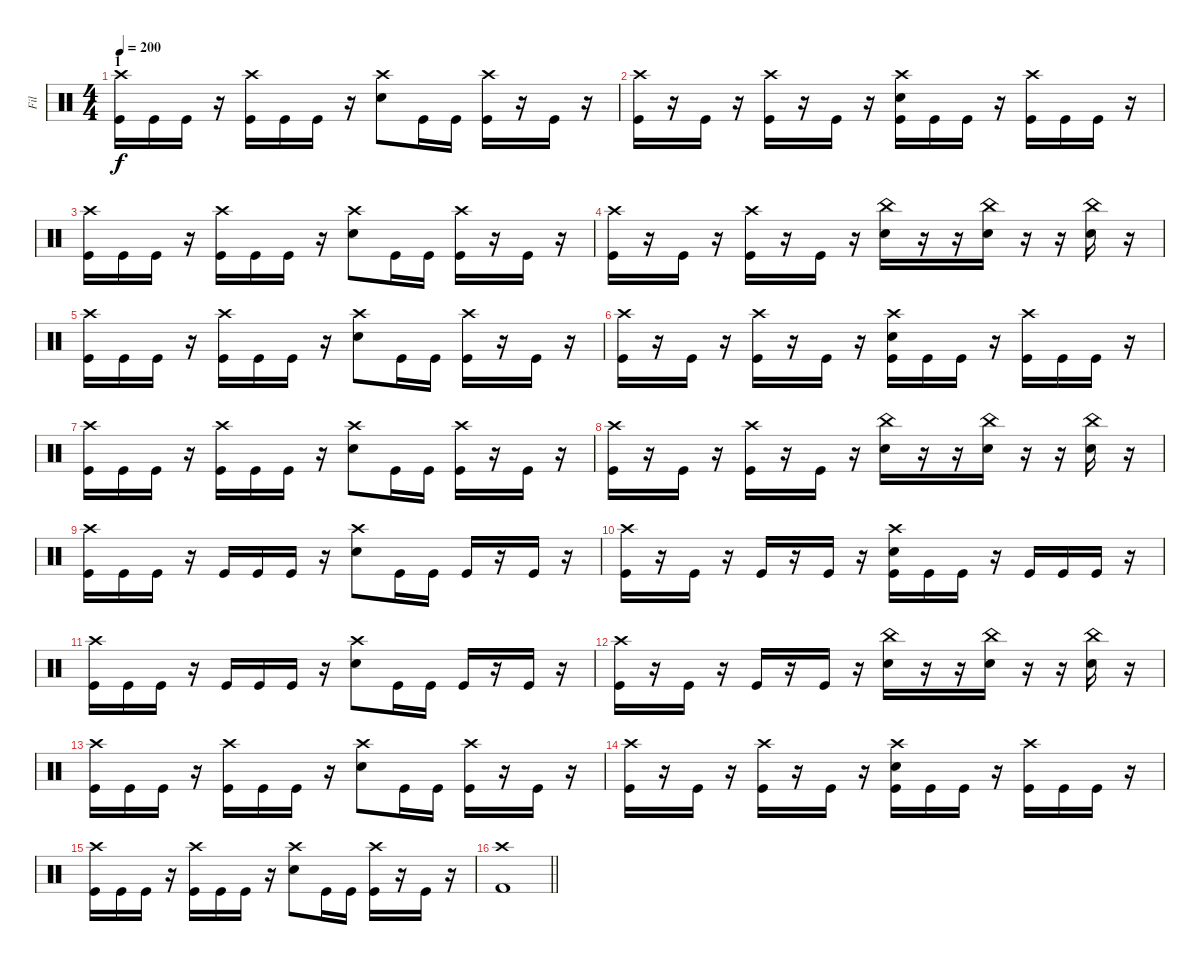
\track ("Fil" "Fil") {instrument percussion}
\staff {score}
\articulation defaults
\ts (4 4)
\section ("" "1")
\tempo 200
\clef neutral
\ks c
("Crash high (hit)" "Kick (hit)").16{dy f} "Kick (hit)".16 "Kick (hit)".16 r.16 ("Crash high (hit)" "Kick (hit)").16 "Kick (hit)".16 "Kick (hit)".16 r.16 ("Crash high (hit)" "Electric Snare (hit)").8 "Kick (hit)".16 "Kick (hit)".16 ("Crash high (hit)" "Kick (hit)").16 r.16 "Kick (hit)".16 r.16 |
("Crash high (hit)" "Kick (hit)").16 r.16 "Kick (hit)".16 r.16 ("Crash high (hit)" "Kick (hit)").16 r.16 "Kick (hit)".16 r.16 ("Crash high (hit)" "Electric Snare (hit)" "Kick (hit)").16 "Kick (hit)".16 "Kick (hit)".16 r.16 ("Crash high (hit)" "Kick (hit)").16 "Kick (hit)".16 "Kick (hit)".16 r.16 |
("Crash high (hit)" "Kick (hit)").16 "Kick (hit)".16 "Kick (hit)".16 r.16 ("Crash high (hit)" "Kick (hit)").16 "Kick (hit)".16 "Kick (hit)".16 r.16 ("Crash high (hit)" "Electric Snare (hit)").8 "Kick (hit)".16 "Kick (hit)".16 ("Crash high (hit)" "Kick (hit)").16 r.16 "Kick (hit)".16 r.16 |
("Crash high (hit)" "Kick (hit)").16 r.16 "Kick (hit)".16 r.16 ("Crash high (hit)" "Kick (hit)").16 r.16 "Kick (hit)".16 r.16 ("China (hit)" "Electric Snare (hit)").16 r.16 r.16 ("China (hit)" "Electric Snare (hit)").16 r.16 r.16 ("China (hit)" "Electric Snare (hit)").16 r.16 |
("Crash high (hit)" "Kick (hit)").16 "Kick (hit)".16 "Kick (hit)".16 r.16 ("Crash high (hit)" "Kick (hit)").16 "Kick (hit)".16 "Kick (hit)".16 r.16 ("Crash high (hit)" "Electric Snare (hit)").8 "Kick (hit)".16 "Kick (hit)".16 ("Crash high (hit)" "Kick (hit)").16 r.16 "Kick (hit)".16 r.16 |
("Crash high (hit)" "Kick (hit)").16 r.16 "Kick (hit)".16 r.16 ("Crash high (hit)" "Kick (hit)").16 r.16 "Kick (hit)".16 r.16 ("Crash high (hit)" "Electric Snare (hit)" "Kick (hit)").16 "Kick (hit)".16 "Kick (hit)".16 r.16 ("Crash high (hit)" "Kick (hit)").16 "Kick (hit)".16 "Kick (hit)".16 r.16 |
("Crash high (hit)" "Kick (hit)").16 "Kick (hit)".16 "Kick (hit)".16 r.16 ("Crash high (hit)" "Kick (hit)").16 "Kick (hit)".16 "Kick (hit)".16 r.16 ("Crash high (hit)" "Electric Snare (hit)").8 "Kick (hit)".16 "Kick (hit)".16 ("Crash high (hit)" "Kick (hit)").16 r.16 "Kick (hit)".16 r.16 |
("Crash high (hit)" "Kick (hit)").16 r.16 "Kick (hit)".16 r.16 ("Crash high (hit)" "Kick (hit)").16 r.16 "Kick (hit)".16 r.16 ("China (hit)" "Electric Snare (hit)").16 r.16 r.16 ("China (hit)" "Electric Snare (hit)").16 r.16 r.16 ("China (hit)" "Electric Snare (hit)").16 r.16 |
("Crash high (hit)" "Kick (hit)").16 "Kick (hit)".16 "Kick (hit)".16 r.16 "Kick (hit)".16 "Kick (hit)".16 "Kick (hit)".16 r.16 ("Crash high (hit)" "Electric Snare (hit)").8 "Kick (hit)".16 "Kick (hit)".16 "Kick (hit)".16 r.16 "Kick (hit)".16 r.16 |
("Crash high (hit)" "Kick (hit)").16 r.16 "Kick (hit)".16 r.16 "Kick (hit)".16 r.16 "Kick (hit)".16 r.16 ("Crash high (hit)" "Electric Snare (hit)" "Kick (hit)").16 "Kick (hit)".16 "Kick (hit)".16 r.16 "Kick (hit)".16 "Kick (hit)".16 "Kick (hit)".16 r.16 |
("Crash high (hit)" "Kick (hit)").16 "Kick (hit)".16 "Kick (hit)".16 r.16 "Kick (hit)".16 "Kick (hit)".16 "Kick (hit)".16 r.16 ("Crash high (hit)" "Electric Snare (hit)").8 "Kick (hit)".16 "Kick (hit)".16 "Kick (hit)".16 r.16 "Kick (hit)".16 r.16 |
("Crash high (hit)" "Kick (hit)").16 r.16 "Kick (hit)".16 r.16 "Kick (hit)".16 r.16 "Kick (hit)".16 r.16 ("China (hit)" "Electric Snare (hit)").16 r.16 r.16 ("China (hit)" "Electric Snare (hit)").16 r.16 r.16 ("China (hit)" "Electric Snare (hit)").16 r.16 |
("Crash high (hit)" "Kick (hit)").16 "Kick (hit)".16 "Kick (hit)".16 r.16 ("Crash high (hit)" "Kick (hit)").16 "Kick (hit)".16 "Kick (hit)".16 r.16 ("Crash high (hit)" "Electric Snare (hit)").8 "Kick (hit)".16 "Kick (hit)".16 ("Crash high (hit)" "Kick (hit)").16 r.16 "Kick (hit)".16 r.16 |
("Crash high (hit)" "Kick (hit)").16 r.16 "Kick (hit)".16 r.16 ("Crash high (hit)" "Kick (hit)").16 r.16 "Kick (hit)".16 r.16 ("Crash high (hit)" "Electric Snare (hit)" "Kick (hit)").16 "Kick (hit)".16 "Kick (hit)".16 r.16 ("Crash high (hit)" "Kick (hit)").16 "Kick (hit)".16 "Kick (hit)".16 r.16 |
("Crash high (hit)" "Kick (hit)").16 "Kick (hit)".16 "Kick (hit)".16 r.16 ("Crash high (hit)" "Kick (hit)").16 "Kick (hit)".16 "Kick (hit)".16 r.16 ("Crash high (hit)" "Electric Snare (hit)").8 "Kick (hit)".16 "Kick (hit)".16 ("Crash high (hit)" "Kick (hit)").16 r.16 "Kick (hit)".16 r.16 |
\barLineRight lightlight
("Crash high (hit)" "Kick (hit) 2").1
